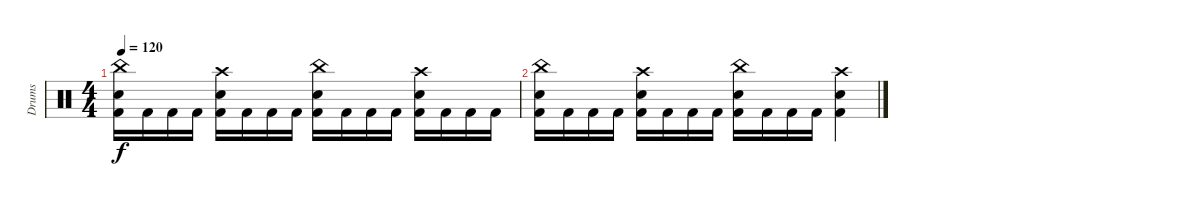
\track ("Drums" "Drums") {instrument percussion}
\staff {score}
\articulation defaults
\ts (4 4)
\tempo 120
\clef neutral
\ks c
("China (hit)" "Electric Snare (hit)" "Kick (hit) 2").16{dy f} "Kick (hit) 2".16 "Kick (hit) 2".16 "Kick (hit) 2".16 ("Crash high (hit)" "Electric Snare (hit)" "Kick (hit) 2").16 "Kick (hit) 2".16 "Kick (hit) 2".16 "Kick (hit) 2".16 ("China (hit)" "Electric Snare (hit)" "Kick (hit) 2").16 "Kick (hit) 2".16 "Kick (hit) 2".16 "Kick (hit) 2".16 ("Crash high (hit)" "Electric Snare (hit)" "Kick (hit) 2").16 "Kick (hit) 2".16 "Kick (hit) 2".16 "Kick (hit) 2".16 |
("China (hit)" "Electric Snare (hit)" "Kick (hit) 2").16 "Kick (hit) 2".16 "Kick (hit) 2".16 "Kick (hit) 2".16 ("Crash high (hit)" "Electric Snare (hit)" "Kick (hit) 2").16 "Kick (hit) 2".16 "Kick (hit) 2".16 "Kick (hit) 2".16 ("China (hit)" "Electric Snare (hit)" "Kick (hit) 2").16 "Kick (hit) 2".16 "Kick (hit) 2".16 "Kick (hit) 2".16 ("Crash high (hit)" "Electric Snare (hit)" "Kick (hit) 2").4
